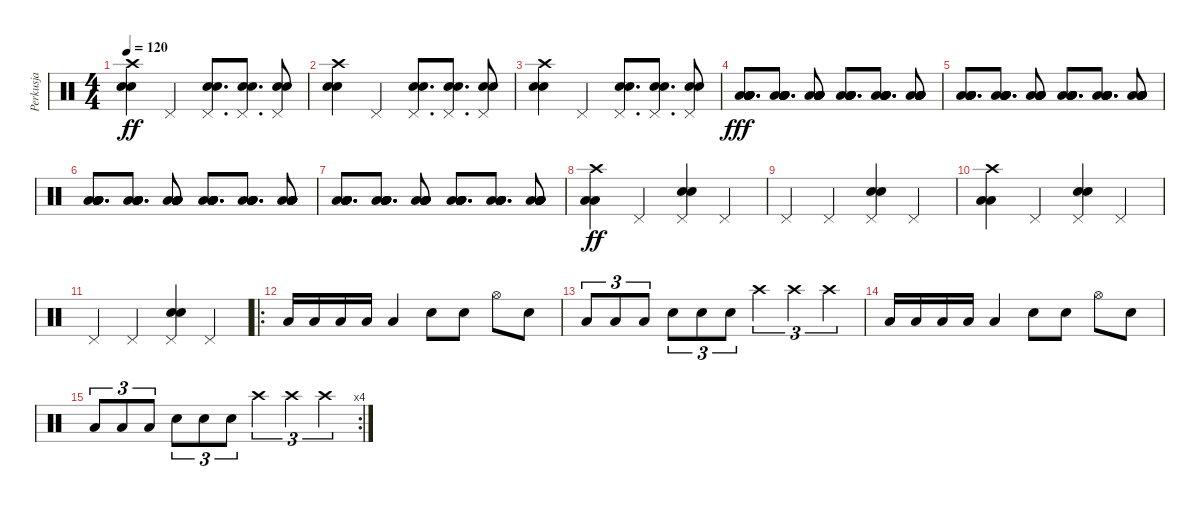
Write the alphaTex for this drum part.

\track ("Perkusja" "Perkusja") {instrument percussion}
\staff {score}
\articulation defaults
\ts (4 4)
\tempo 120
\clef neutral
\ks c
("Crash high (hit)" "Snare (hit) 2" "Snare (hit) 2").4{dy ff} "Pedal Hi-Hat (hit)".4 ("Pedal Hi-Hat (hit)" "Snare (hit) 2" "Snare (hit) 2").8{d} ("Pedal Hi-Hat (hit)" "Snare (hit) 2" "Snare (hit) 2").8{d} ("Pedal Hi-Hat (hit)" "Snare (hit) 2" "Snare (hit) 2").8 |
("Crash high (hit)" "Snare (hit) 2" "Snare (hit) 2").4 "Pedal Hi-Hat (hit)".4 ("Pedal Hi-Hat (hit)" "Snare (hit) 2" "Snare (hit) 2").8{d} ("Pedal Hi-Hat (hit)" "Snare (hit) 2" "Snare (hit) 2").8{d} ("Pedal Hi-Hat (hit)" "Snare (hit) 2" "Snare (hit) 2").8 |
("Crash high (hit)" "Snare (hit) 2" "Snare (hit) 2").4 "Pedal Hi-Hat (hit)".4 ("Pedal Hi-Hat (hit)" "Snare (hit) 2" "Snare (hit) 2").8{d} ("Pedal Hi-Hat (hit)" "Snare (hit) 2" "Snare (hit) 2").8{d} ("Pedal Hi-Hat (hit)" "Snare (hit) 2" "Snare (hit) 2").8 |
("Low Tom (hit)" "Low Tom (hit)" "Low Tom (hit)" "Low Tom (hit)" "Low Tom (hit)" "Low Tom (hit)").8{d dy fff} ("Low Tom (hit)" "Low Tom (hit)" "Low Tom (hit)" "Low Tom (hit)" "Low Tom (hit)" "Low Tom (hit)").8{d} ("Low Tom (hit)" "Low Tom (hit)" "Low Tom (hit)" "Low Tom (hit)" "Low Tom (hit)" "Low Tom (hit)").8 ("Low Tom (hit)" "Low Tom (hit)" "Low Tom (hit)" "Low Tom (hit)" "Low Tom (hit)" "Low Tom (hit)").8{d} ("Low Tom (hit)" "Low Tom (hit)" "Low Tom (hit)" "Low Tom (hit)" "Low Tom (hit)" "Low Tom (hit)").8{d} ("Low Tom (hit)" "Low Tom (hit)" "Low Tom (hit)" "Low Tom (hit)" "Low Tom (hit)" "Low Tom (hit)").8 |
("Low Tom (hit)" "Low Tom (hit)" "Low Tom (hit)" "Low Tom (hit)" "Low Tom (hit)" "Low Tom (hit)").8{d} ("Low Tom (hit)" "Low Tom (hit)" "Low Tom (hit)" "Low Tom (hit)" "Low Tom (hit)" "Low Tom (hit)").8{d} ("Low Tom (hit)" "Low Tom (hit)" "Low Tom (hit)" "Low Tom (hit)" "Low Tom (hit)" "Low Tom (hit)").8 ("Low Tom (hit)" "Low Tom (hit)" "Low Tom (hit)" "Low Tom (hit)" "Low Tom (hit)" "Low Tom (hit)").8{d} ("Low Tom (hit)" "Low Tom (hit)" "Low Tom (hit)" "Low Tom (hit)" "Low Tom (hit)" "Low Tom (hit)").8{d} ("Low Tom (hit)" "Low Tom (hit)" "Low Tom (hit)" "Low Tom (hit)" "Low Tom (hit)" "Low Tom (hit)").8 |
("Low Tom (hit)" "Low Tom (hit)" "Low Tom (hit)" "Low Tom (hit)" "Low Tom (hit)" "Low Tom (hit)").8{d} ("Low Tom (hit)" "Low Tom (hit)" "Low Tom (hit)" "Low Tom (hit)" "Low Tom (hit)" "Low Tom (hit)").8{d} ("Low Tom (hit)" "Low Tom (hit)" "Low Tom (hit)" "Low Tom (hit)" "Low Tom (hit)" "Low Tom (hit)").8 ("Low Tom (hit)" "Low Tom (hit)" "Low Tom (hit)" "Low Tom (hit)" "Low Tom (hit)" "Low Tom (hit)").8{d} ("Low Tom (hit)" "Low Tom (hit)" "Low Tom (hit)" "Low Tom (hit)" "Low Tom (hit)" "Low Tom (hit)").8{d} ("Low Tom (hit)" "Low Tom (hit)" "Low Tom (hit)" "Low Tom (hit)" "Low Tom (hit)" "Low Tom (hit)").8 |
("Low Tom (hit)" "Low Tom (hit)" "Low Tom (hit)" "Low Tom (hit)" "Low Tom (hit)" "Low Tom (hit)").8{d} ("Low Tom (hit)" "Low Tom (hit)" "Low Tom (hit)" "Low Tom (hit)" "Low Tom (hit)" "Low Tom (hit)").8{d} ("Low Tom (hit)" "Low Tom (hit)" "Low Tom (hit)" "Low Tom (hit)" "Low Tom (hit)" "Low Tom (hit)").8 ("Low Tom (hit)" "Low Tom (hit)" "Low Tom (hit)" "Low Tom (hit)" "Low Tom (hit)" "Low Tom (hit)").8{d} ("Low Tom (hit)" "Low Tom (hit)" "Low Tom (hit)" "Low Tom (hit)" "Low Tom (hit)" "Low Tom (hit)").8{d} ("Low Tom (hit)" "Low Tom (hit)" "Low Tom (hit)" "Low Tom (hit)" "Low Tom (hit)" "Low Tom (hit)").8 |
("Low Tom (hit)" "Low Tom (hit)" "Crash high (hit)").4{dy ff} "Pedal Hi-Hat (hit)".4 ("Pedal Hi-Hat (hit)" "Snare (hit) 2" "Snare (hit) 2").4 "Pedal Hi-Hat (hit)".4 |
"Pedal Hi-Hat (hit)".4 "Pedal Hi-Hat (hit)".4 ("Pedal Hi-Hat (hit)" "Snare (hit) 2" "Snare (hit) 2").4 "Pedal Hi-Hat (hit)".4 |
("Low Tom (hit)" "Low Tom (hit)" "Crash high (hit)").4 "Pedal Hi-Hat (hit)".4 ("Pedal Hi-Hat (hit)" "Snare (hit) 2" "Snare (hit) 2").4 "Pedal Hi-Hat (hit)".4 |
"Pedal Hi-Hat (hit)".4 "Pedal Hi-Hat (hit)".4 ("Pedal Hi-Hat (hit)" "Snare (hit) 2" "Snare (hit) 2").4 "Pedal Hi-Hat (hit)".4 |
\ro "Low Tom (hit)".16 "Low Tom (hit)".16 "Low Tom (hit)".16 "Low Tom (hit)".16 "Low Tom (hit)".4 "Snare (hit) 2".8 "Snare (hit) 2".8 "Hi-Hat (open)".8 "Snare (hit) 2".8
|
"Low Tom (hit)".8{tu (3 2)} "Low Tom (hit)".8{tu (3 2)} "Low Tom (hit)".8{tu (3 2)} "Snare (hit) 2".8{tu (3 2)} "Snare (hit) 2".8{tu (3 2)} "Snare (hit) 2".8{tu (3 2)} "Crash high (hit)".4{tu (3 2)} "Crash high (hit)".4{tu (3 2)} "Crash high (hit)".4{tu (3 2)} |
"Low Tom (hit)".16 "Low Tom (hit)".16 "Low Tom (hit)".16 "Low Tom (hit)".16 "Low Tom (hit)".4 "Snare (hit) 2".8 "Snare (hit) 2".8 "Hi-Hat (open)".8 "Snare (hit) 2".8 |
\rc 4 "Low Tom (hit)".8{tu (3 2)} "Low Tom (hit)".8{tu (3 2)} "Low Tom (hit)".8{tu (3 2)} "Snare (hit) 2".8{tu (3 2)} "Snare (hit) 2".8{tu (3 2)} "Snare (hit) 2".8{tu (3 2)} "Crash high (hit)".4{tu (3 2)} "Crash high (hit)".4{tu (3 2)} "Crash high (hit)".4{tu (3 2)}
